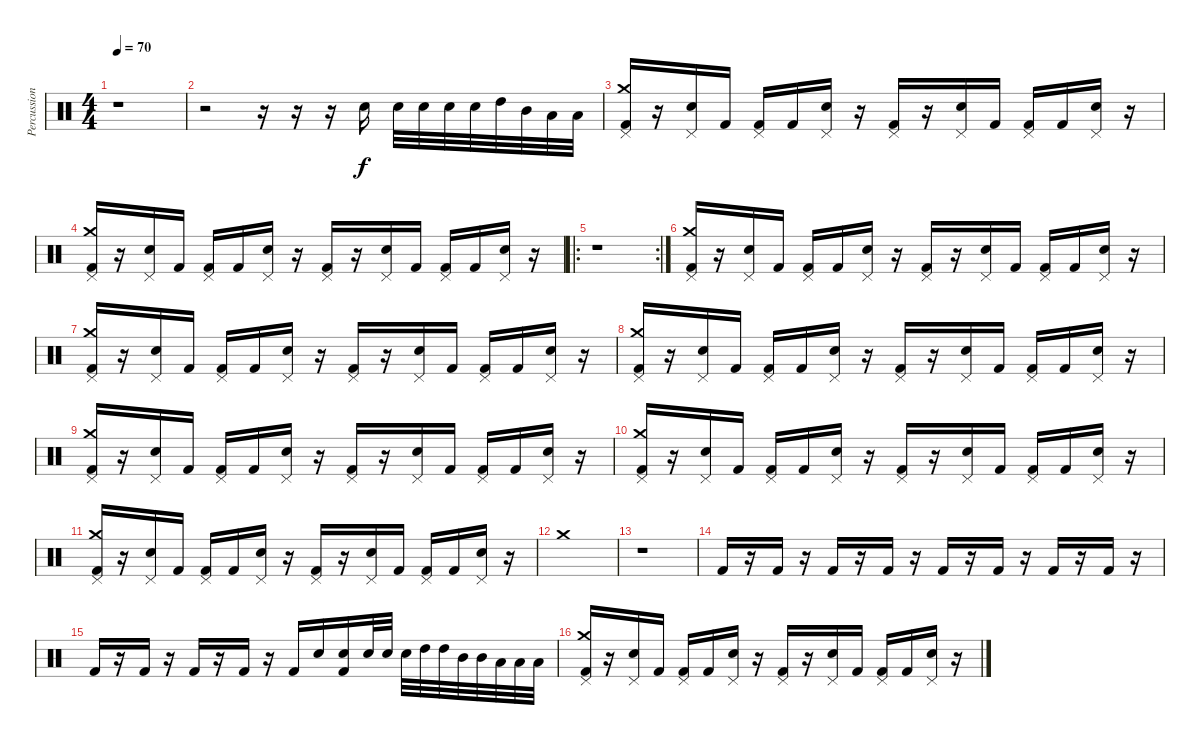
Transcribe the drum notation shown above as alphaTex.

\track ("Percussion" "Percussion") {instrument percussion}
\staff {score}
\articulation defaults
\ts (4 4)
\tempo 70
\clef neutral
\ks c
r.1{dy f} |
r.2 r.16 r.16 r.16 "Electric Snare (hit)".16 "Electric Snare (hit)".32 "Electric Snare (hit)".32 "Snare (hit) 2".32 "Snare (hit) 2".32 "High Tom (hit)".32 "Mid Tom (hit)".32 "Low Tom (hit)".32 "Low Floor Tom (hit)".32 |
("Pedal Hi-Hat (hit)" "Crash medium (hit)" "Kick (hit) 2").16 r.16 ("Pedal Hi-Hat (hit)" "Snare (hit) 2").16 "Kick (hit) 2".16 ("Pedal Hi-Hat (hit)" "Kick (hit) 2").16 "Kick (hit) 2".16 ("Pedal Hi-Hat (hit)" "Snare (hit) 2").16 r.16 ("Pedal Hi-Hat (hit)" "Kick (hit) 2").16 r.16 ("Pedal Hi-Hat (hit)" "Snare (hit) 2").16 "Kick (hit) 2".16 ("Pedal Hi-Hat (hit)" "Kick (hit) 2").16 "Kick (hit) 2".16 ("Pedal Hi-Hat (hit)" "Snare (hit) 2").16 r.16 |
("Pedal Hi-Hat (hit)" "Crash medium (hit)" "Kick (hit) 2").16 r.16 ("Pedal Hi-Hat (hit)" "Snare (hit) 2").16 "Kick (hit) 2".16 ("Pedal Hi-Hat (hit)" "Kick (hit) 2").16 "Kick (hit) 2".16 ("Pedal Hi-Hat (hit)" "Snare (hit) 2").16 r.16 ("Pedal Hi-Hat (hit)" "Kick (hit) 2").16 r.16 ("Pedal Hi-Hat (hit)" "Snare (hit) 2").16 "Kick (hit) 2".16 ("Pedal Hi-Hat (hit)" "Kick (hit) 2").16 "Kick (hit) 2".16 ("Pedal Hi-Hat (hit)" "Snare (hit) 2").16 r.16 |
\ro
\rc 2
r.1 |
("Pedal Hi-Hat (hit)" "Crash medium (hit)" "Kick (hit) 2").16 r.16 ("Pedal Hi-Hat (hit)" "Snare (hit) 2").16 "Kick (hit) 2".16 ("Pedal Hi-Hat (hit)" "Kick (hit) 2").16 "Kick (hit) 2".16 ("Pedal Hi-Hat (hit)" "Snare (hit) 2").16 r.16 ("Pedal Hi-Hat (hit)" "Kick (hit) 2").16 r.16 ("Pedal Hi-Hat (hit)" "Snare (hit) 2").16 "Kick (hit) 2".16 ("Pedal Hi-Hat (hit)" "Kick (hit) 2").16 "Kick (hit) 2".16 ("Pedal Hi-Hat (hit)" "Snare (hit) 2").16 r.16 |
("Pedal Hi-Hat (hit)" "Crash medium (hit)" "Kick (hit) 2").16 r.16 ("Pedal Hi-Hat (hit)" "Snare (hit) 2").16 "Kick (hit) 2".16 ("Pedal Hi-Hat (hit)" "Kick (hit) 2").16 "Kick (hit) 2".16 ("Pedal Hi-Hat (hit)" "Snare (hit) 2").16 r.16 ("Pedal Hi-Hat (hit)" "Kick (hit) 2").16 r.16 ("Pedal Hi-Hat (hit)" "Snare (hit) 2").16 "Kick (hit) 2".16 ("Pedal Hi-Hat (hit)" "Kick (hit) 2").16 "Kick (hit) 2".16 ("Pedal Hi-Hat (hit)" "Snare (hit) 2").16 r.16 |
("Pedal Hi-Hat (hit)" "Crash medium (hit)" "Kick (hit) 2").16 r.16 ("Pedal Hi-Hat (hit)" "Snare (hit) 2").16 "Kick (hit) 2".16 ("Pedal Hi-Hat (hit)" "Kick (hit) 2").16 "Kick (hit) 2".16 ("Pedal Hi-Hat (hit)" "Snare (hit) 2").16 r.16 ("Pedal Hi-Hat (hit)" "Kick (hit) 2").16 r.16 ("Pedal Hi-Hat (hit)" "Snare (hit) 2").16 "Kick (hit) 2".16 ("Pedal Hi-Hat (hit)" "Kick (hit) 2").16 "Kick (hit) 2".16 ("Pedal Hi-Hat (hit)" "Snare (hit) 2").16 r.16 |
("Pedal Hi-Hat (hit)" "Crash medium (hit)" "Kick (hit) 2").16 r.16 ("Pedal Hi-Hat (hit)" "Snare (hit) 2").16 "Kick (hit) 2".16 ("Pedal Hi-Hat (hit)" "Kick (hit) 2").16 "Kick (hit) 2".16 ("Pedal Hi-Hat (hit)" "Snare (hit) 2").16 r.16 ("Pedal Hi-Hat (hit)" "Kick (hit) 2").16 r.16 ("Pedal Hi-Hat (hit)" "Snare (hit) 2").16 "Kick (hit) 2".16 ("Pedal Hi-Hat (hit)" "Kick (hit) 2").16 "Kick (hit) 2".16 ("Pedal Hi-Hat (hit)" "Snare (hit) 2").16 r.16 |
("Pedal Hi-Hat (hit)" "Crash medium (hit)" "Kick (hit) 2").16 r.16 ("Pedal Hi-Hat (hit)" "Snare (hit) 2").16 "Kick (hit) 2".16 ("Pedal Hi-Hat (hit)" "Kick (hit) 2").16 "Kick (hit) 2".16 ("Pedal Hi-Hat (hit)" "Snare (hit) 2").16 r.16 ("Pedal Hi-Hat (hit)" "Kick (hit) 2").16 r.16 ("Pedal Hi-Hat (hit)" "Snare (hit) 2").16 "Kick (hit) 2".16 ("Pedal Hi-Hat (hit)" "Kick (hit) 2").16 "Kick (hit) 2".16 ("Pedal Hi-Hat (hit)" "Snare (hit) 2").16 r.16 |
("Pedal Hi-Hat (hit)" "Crash medium (hit)" "Kick (hit) 2").16 r.16 ("Pedal Hi-Hat (hit)" "Snare (hit) 2").16 "Kick (hit) 2".16 ("Pedal Hi-Hat (hit)" "Kick (hit) 2").16 "Kick (hit) 2".16 ("Pedal Hi-Hat (hit)" "Snare (hit) 2").16 r.16 ("Pedal Hi-Hat (hit)" "Kick (hit) 2").16 r.16 ("Pedal Hi-Hat (hit)" "Snare (hit) 2").16 "Kick (hit) 2".16 ("Pedal Hi-Hat (hit)" "Kick (hit) 2").16 "Kick (hit) 2".16 ("Pedal Hi-Hat (hit)" "Snare (hit) 2").16 r.16 |
"Crash medium (hit)".1 |
r.1 |
"Kick (hit) 2".16 r.16 "Kick (hit) 2".16 r.16 "Kick (hit) 2".16 r.16 "Kick (hit) 2".16 r.16 "Kick (hit) 2".16 r.16 "Kick (hit) 2".16 r.16 "Kick (hit) 2".16 r.16 "Kick (hit) 2".16 r.16 |
"Kick (hit) 2".16 r.16 "Kick (hit) 2".16 r.16 "Kick (hit) 2".16 r.16 "Kick (hit) 2".16 r.16 "Kick (hit) 2".16 "Electric Snare (hit)".16 ("Electric Snare (hit)" "Kick (hit) 2").16 "Snare (hit) 2".32 "Snare (hit) 2".32 "Snare (hit) 2".32 "High Tom (hit)".32 "High Tom (hit)".32 "Mid Tom (hit)".32 "Mid Tom (hit)".32 "Low Tom (hit)".32 "Low Tom (hit)".32 "Low Floor Tom (hit)".32 |
("Pedal Hi-Hat (hit)" "Crash medium (hit)" "Kick (hit) 2").16 r.16 ("Pedal Hi-Hat (hit)" "Snare (hit) 2").16 "Kick (hit) 2".16 ("Pedal Hi-Hat (hit)" "Kick (hit) 2").16 "Kick (hit) 2".16 ("Pedal Hi-Hat (hit)" "Snare (hit) 2").16 r.16 ("Pedal Hi-Hat (hit)" "Kick (hit) 2").16 r.16 ("Pedal Hi-Hat (hit)" "Snare (hit) 2").16 "Kick (hit) 2".16 ("Pedal Hi-Hat (hit)" "Kick (hit) 2").16 "Kick (hit) 2".16 ("Pedal Hi-Hat (hit)" "Snare (hit) 2").16 r.16
